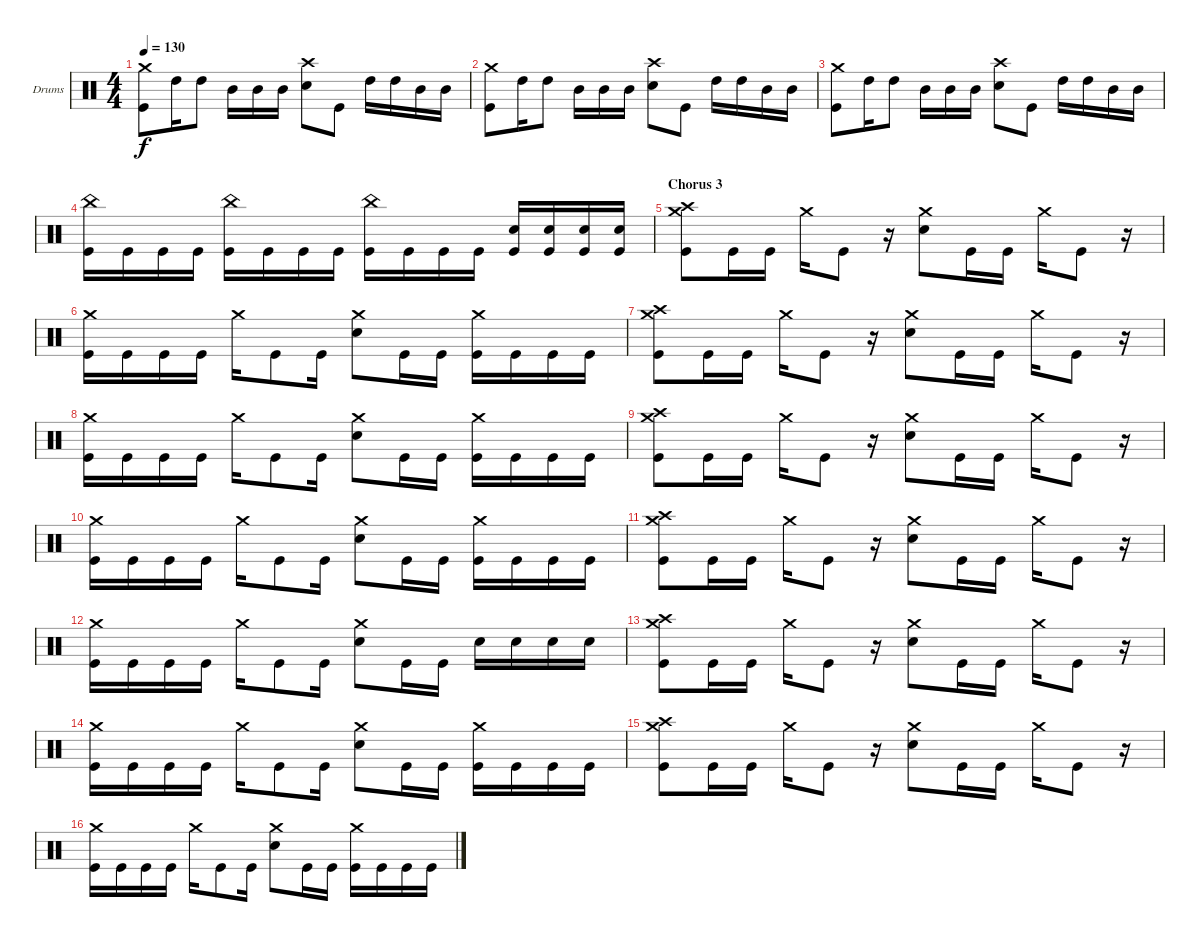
\bracketExtendMode groupsimilarinstruments
\firstSystemTrackNameOrientation horizontal
\otherSystemsTrackNameOrientation horizontal
\track ("Drumkit" "Drums") {instrument percussion}
\staff {score}
\articulation defaults
\ts (4 4)
\tempo 130
\clef neutral
\ks c
("Kick (hit)" "Crash medium (hit)").8{dy f} "High Tom (hit)".16 "High Tom (hit)".8 "Mid Tom (hit)".16 "Mid Tom (hit)".16 "Mid Tom (hit)".16 ("Snare (hit) 2" "Crash high (hit)").8 "Kick (hit)".8 "High Tom (hit)".16 "High Tom (hit)".16 "Mid Tom (hit)".16 "Mid Tom (hit)".16 |
("Kick (hit)" "Crash medium (hit)").8 "High Tom (hit)".16 "High Tom (hit)".8 "Mid Tom (hit)".16 "Mid Tom (hit)".16 "Mid Tom (hit)".16 ("Snare (hit) 2" "Crash high (hit)").8 "Kick (hit)".8 "High Tom (hit)".16 "High Tom (hit)".16 "Mid Tom (hit)".16 "Mid Tom (hit)".16 |
("Kick (hit)" "Crash medium (hit)").8 "High Tom (hit)".16 "High Tom (hit)".8 "Mid Tom (hit)".16 "Mid Tom (hit)".16 "Mid Tom (hit)".16 ("Snare (hit) 2" "Crash high (hit)").8 "Kick (hit)".8 "High Tom (hit)".16 "High Tom (hit)".16 "Mid Tom (hit)".16 "Mid Tom (hit)".16 |
("Kick (hit)" "China (hit)").16 "Kick (hit)".16 "Kick (hit)".16 "Kick (hit)".16 ("Kick (hit)" "China (hit)").16 "Kick (hit)".16 "Kick (hit)".16 "Kick (hit)".16 ("Kick (hit)" "China (hit)").16 "Kick (hit)".16 "Kick (hit)".16 "Kick (hit)".16 ("Kick (hit)" "Snare (hit) 2").16 ("Kick (hit)" "Snare (hit) 2").16 ("Kick (hit)" "Snare (hit) 2").16 ("Kick (hit)" "Snare (hit) 2").16 |
\section ("" "Chorus 3")
("Kick (hit)" "Crash high (hit)" "Crash medium (hit)").8 "Kick (hit)".16 "Kick (hit)".16 "Crash medium (hit)".16 "Kick (hit)".8 r.16 ("Crash medium (hit)" "Snare (hit) 2").8 "Kick (hit)".16 "Kick (hit)".16 "Crash medium (hit)".16 "Kick (hit)".8 r.16 |
("Kick (hit)" "Crash medium (hit)").16 "Kick (hit)".16 "Kick (hit)".16 "Kick (hit)".16 "Crash medium (hit)".16 "Kick (hit)".8 "Kick (hit)".16 ("Snare (hit) 2" "Crash medium (hit)").8 "Kick (hit)".16 "Kick (hit)".16 ("Kick (hit)" "Crash medium (hit)").16 "Kick (hit)".16 "Kick (hit)".16 "Kick (hit)".16 |
("Kick (hit)" "Crash high (hit)" "Crash medium (hit)").8 "Kick (hit)".16 "Kick (hit)".16 "Crash medium (hit)".16 "Kick (hit)".8 r.16 ("Crash medium (hit)" "Snare (hit) 2").8 "Kick (hit)".16 "Kick (hit)".16 "Crash medium (hit)".16 "Kick (hit)".8 r.16 |
("Kick (hit)" "Crash medium (hit)").16 "Kick (hit)".16 "Kick (hit)".16 "Kick (hit)".16 "Crash medium (hit)".16 "Kick (hit)".8 "Kick (hit)".16 ("Snare (hit) 2" "Crash medium (hit)").8 "Kick (hit)".16 "Kick (hit)".16 ("Kick (hit)" "Crash medium (hit)").16 "Kick (hit)".16 "Kick (hit)".16 "Kick (hit)".16 |
("Kick (hit)" "Crash high (hit)" "Crash medium (hit)").8 "Kick (hit)".16 "Kick (hit)".16 "Crash medium (hit)".16 "Kick (hit)".8 r.16 ("Crash medium (hit)" "Snare (hit) 2").8 "Kick (hit)".16 "Kick (hit)".16 "Crash medium (hit)".16 "Kick (hit)".8 r.16 |
("Kick (hit)" "Crash medium (hit)").16 "Kick (hit)".16 "Kick (hit)".16 "Kick (hit)".16 "Crash medium (hit)".16 "Kick (hit)".8 "Kick (hit)".16 ("Snare (hit) 2" "Crash medium (hit)").8 "Kick (hit)".16 "Kick (hit)".16 ("Kick (hit)" "Crash medium (hit)").16 "Kick (hit)".16 "Kick (hit)".16 "Kick (hit)".16 |
("Kick (hit)" "Crash high (hit)" "Crash medium (hit)").8 "Kick (hit)".16 "Kick (hit)".16 "Crash medium (hit)".16 "Kick (hit)".8 r.16 ("Crash medium (hit)" "Snare (hit) 2").8 "Kick (hit)".16 "Kick (hit)".16 "Crash medium (hit)".16 "Kick (hit)".8 r.16 |
("Kick (hit)" "Crash medium (hit)").16 "Kick (hit)".16 "Kick (hit)".16 "Kick (hit)".16 "Crash medium (hit)".16 "Kick (hit)".8 "Kick (hit)".16 ("Snare (hit) 2" "Crash medium (hit)").8 "Kick (hit)".16 "Kick (hit)".16 "Snare (hit) 2".16 "Snare (hit) 2".16 "Snare (hit) 2".16 "Snare (hit) 2".16 |
("Kick (hit)" "Crash high (hit)" "Crash medium (hit)").8 "Kick (hit)".16 "Kick (hit)".16 "Crash medium (hit)".16 "Kick (hit)".8 r.16 ("Crash medium (hit)" "Snare (hit) 2").8 "Kick (hit)".16 "Kick (hit)".16 "Crash medium (hit)".16 "Kick (hit)".8 r.16 |
("Kick (hit)" "Crash medium (hit)").16 "Kick (hit)".16 "Kick (hit)".16 "Kick (hit)".16 "Crash medium (hit)".16 "Kick (hit)".8 "Kick (hit)".16 ("Snare (hit) 2" "Crash medium (hit)").8 "Kick (hit)".16 "Kick (hit)".16 ("Kick (hit)" "Crash medium (hit)").16 "Kick (hit)".16 "Kick (hit)".16 "Kick (hit)".16 |
("Kick (hit)" "Crash high (hit)" "Crash medium (hit)").8 "Kick (hit)".16 "Kick (hit)".16 "Crash medium (hit)".16 "Kick (hit)".8 r.16 ("Crash medium (hit)" "Snare (hit) 2").8 "Kick (hit)".16 "Kick (hit)".16 "Crash medium (hit)".16 "Kick (hit)".8 r.16 |
("Kick (hit)" "Crash medium (hit)").16 "Kick (hit)".16 "Kick (hit)".16 "Kick (hit)".16 "Crash medium (hit)".16 "Kick (hit)".8 "Kick (hit)".16 ("Snare (hit) 2" "Crash medium (hit)").8 "Kick (hit)".16 "Kick (hit)".16 ("Kick (hit)" "Crash medium (hit)").16 "Kick (hit)".16 "Kick (hit)".16 "Kick (hit)".16
